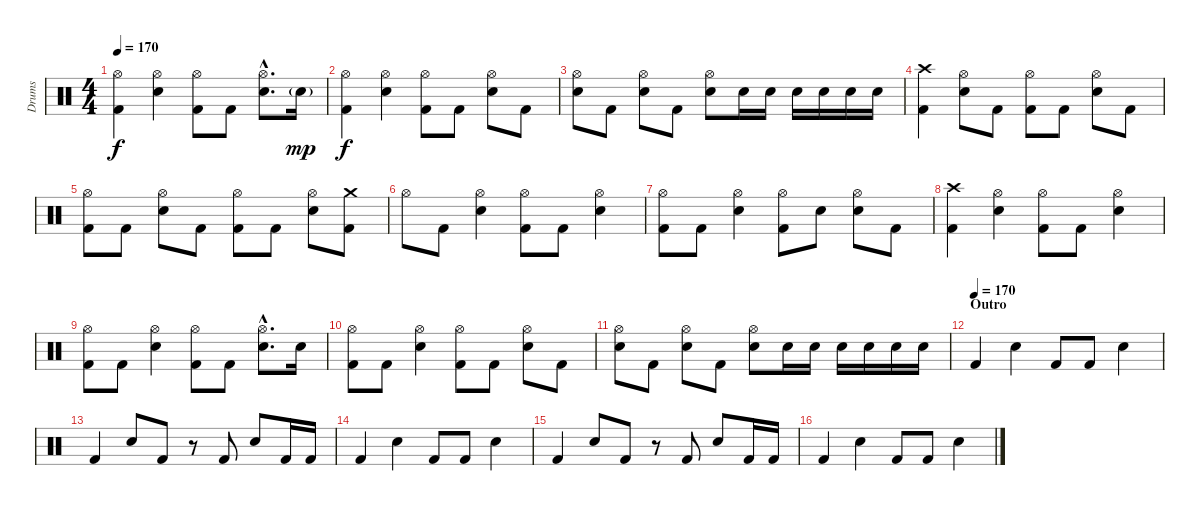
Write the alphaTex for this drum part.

\track ("Drums" "Drums") {instrument percussion}
\staff {score}
\articulation defaults
\ts (4 4)
\tempo 170
\clef neutral
\ks c
("Hi-Hat (open)" "Kick (hit) 2").4{dy f} ("Hi-Hat (open)" "Electric Snare (hit)").4 ("Hi-Hat (open)" "Kick (hit) 2").8 "Kick (hit) 2".8 ("Hi-Hat (open)"{hac} "Electric Snare (hit)"{hac}).8{d} "Electric Snare (hit)"{g}.16{dy mp} |
("Hi-Hat (open)" "Kick (hit) 2").4{dy f} ("Hi-Hat (open)" "Electric Snare (hit)").4 ("Hi-Hat (open)" "Kick (hit) 2").8 "Kick (hit) 2".8 ("Hi-Hat (open)" "Electric Snare (hit)").8 "Kick (hit) 2".8 |
("Hi-Hat (open)" "Electric Snare (hit)").8 "Kick (hit) 2".8 ("Hi-Hat (open)" "Electric Snare (hit)").8 "Kick (hit) 2".8 ("Hi-Hat (open)" "Electric Snare (hit)").8 "Electric Snare (hit)".16 "Electric Snare (hit)".16 "Electric Snare (hit)".16 "Electric Snare (hit)".16 "Electric Snare (hit)".16 "Electric Snare (hit)".16 |
("Crash high (hit)" "Kick (hit) 2").4 ("Hi-Hat (open)" "Electric Snare (hit)").8 "Kick (hit) 2".8 ("Hi-Hat (open)" "Kick (hit) 2").8 "Kick (hit) 2".8 ("Hi-Hat (open)" "Electric Snare (hit)").8 "Kick (hit) 2".8 |
("Hi-Hat (open)" "Kick (hit) 2").8 "Kick (hit) 2".8 ("Hi-Hat (open)" "Electric Snare (hit)").8 "Kick (hit) 2".8 ("Hi-Hat (open)" "Kick (hit) 2").8 "Kick (hit) 2".8 ("Hi-Hat (open)" "Electric Snare (hit)").8 ("Crash medium (hit)" "Kick (hit) 2").8 |
"Hi-Hat (open)".8 "Kick (hit) 2".8 ("Hi-Hat (open)" "Electric Snare (hit)").4 ("Hi-Hat (open)" "Kick (hit) 2").8 "Kick (hit) 2".8 ("Hi-Hat (open)" "Electric Snare (hit)").4 |
("Hi-Hat (open)" "Kick (hit) 2").8 "Kick (hit) 2".8 ("Hi-Hat (open)" "Electric Snare (hit)").4 ("Hi-Hat (open)" "Kick (hit) 2").8 "Electric Snare (hit)".8 ("Hi-Hat (open)" "Electric Snare (hit)").8 "Kick (hit) 2".8 |
("Crash high (hit)" "Kick (hit) 2").4 ("Hi-Hat (open)" "Electric Snare (hit)").4 ("Hi-Hat (open)" "Kick (hit) 2").8 "Kick (hit) 2".8 ("Hi-Hat (open)" "Electric Snare (hit)").4 |
("Hi-Hat (open)" "Kick (hit) 2").8 "Kick (hit) 2".8 ("Hi-Hat (open)" "Electric Snare (hit)").4 ("Hi-Hat (open)" "Kick (hit) 2").8 "Kick (hit) 2".8 ("Hi-Hat (open)"{hac} "Electric Snare (hit)"{hac}).8{d} "Electric Snare (hit)".16 |
("Hi-Hat (open)" "Kick (hit) 2").8 "Kick (hit) 2".8 ("Hi-Hat (open)" "Electric Snare (hit)").4 ("Hi-Hat (open)" "Kick (hit) 2").8 "Kick (hit) 2".8 ("Hi-Hat (open)" "Electric Snare (hit)").8 "Kick (hit) 2".8 |
("Hi-Hat (open)" "Electric Snare (hit)").8 "Kick (hit) 2".8 ("Hi-Hat (open)" "Electric Snare (hit)").8 "Kick (hit) 2".8 ("Hi-Hat (open)" "Electric Snare (hit)").8 "Electric Snare (hit)".16 "Electric Snare (hit)".16 "Electric Snare (hit)".16 "Electric Snare (hit)".16 "Electric Snare (hit)".16 "Electric Snare (hit)".16 |
\section ("" "Outro")
\tempo (170)
"Kick (hit) 2".4 "Electric Snare (hit)".4 "Kick (hit) 2".8 "Kick (hit) 2".8 "Electric Snare (hit)".4 |
"Kick (hit) 2".4 "Electric Snare (hit)".8 "Kick (hit) 2".8 r.8 "Kick (hit) 2".8 "Electric Snare (hit)".8 "Kick (hit) 2".16 "Kick (hit) 2".16 |
"Kick (hit) 2".4 "Electric Snare (hit)".4 "Kick (hit) 2".8 "Kick (hit) 2".8 "Electric Snare (hit)".4 |
"Kick (hit) 2".4 "Electric Snare (hit)".8 "Kick (hit) 2".8 r.8 "Kick (hit) 2".8 "Electric Snare (hit)".8 "Kick (hit) 2".16 "Kick (hit) 2".16 |
"Kick (hit) 2".4 "Electric Snare (hit)".4 "Kick (hit) 2".8 "Kick (hit) 2".8 "Electric Snare (hit)".4
